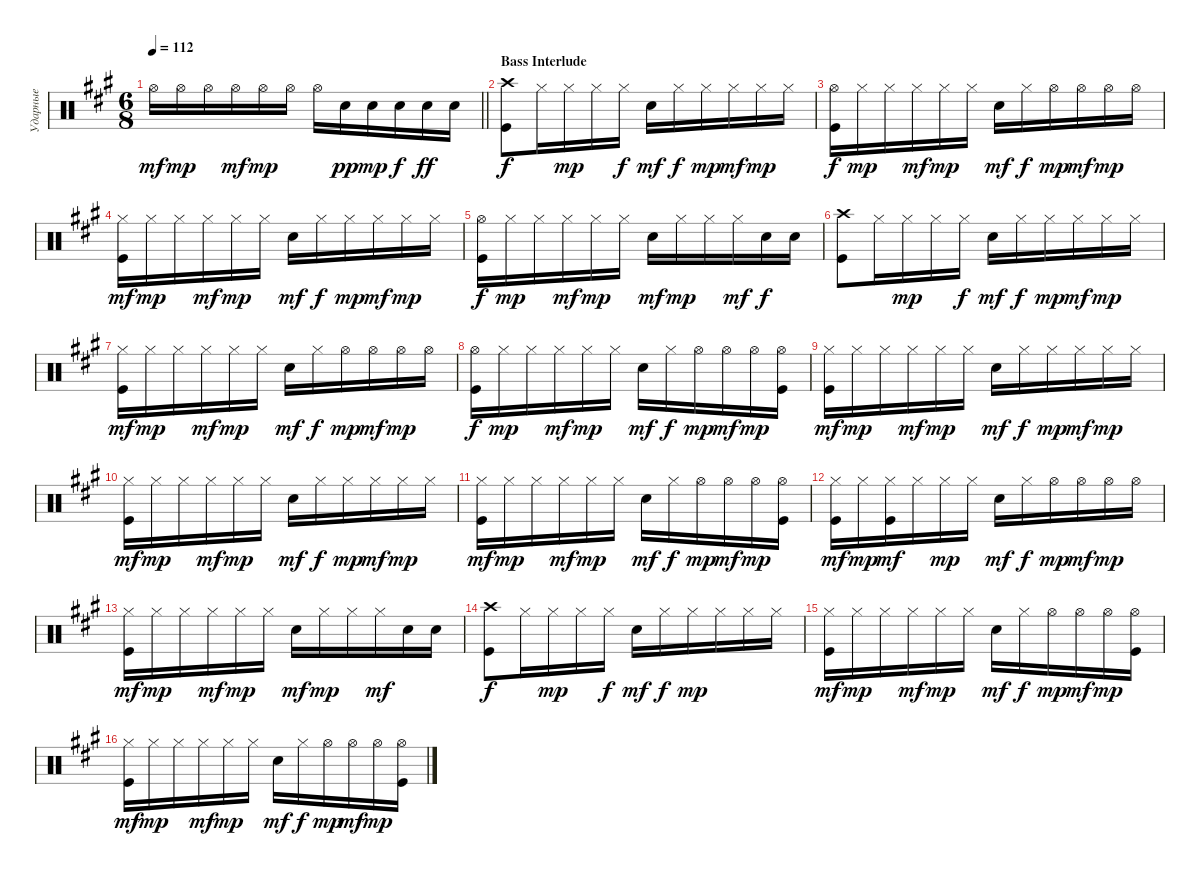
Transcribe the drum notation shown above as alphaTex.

\track ("Ударные" "Ударные") {instrument percussion}
\staff {score}
\articulation defaults
\ts (6 8)
\tempo 112
\clef neutral
\barLineRight lightlight
\ks f#minor "Hi-Hat (open)".16{dy mf} "Hi-Hat (open)".16{dy mp} "Hi-Hat (open)".16 "Hi-Hat (open)".16{dy mf} "Hi-Hat (open)".16{dy mp} "Hi-Hat (open)".16 "Hi-Hat (open)".16 "Snare (hit) 2".16{dy pp} "Snare (hit) 2".16{dy mp} "Snare (hit) 2".16{dy f} "Snare (hit) 2".16{dy ff} "Snare (hit) 2".16
|
\section ("" "Bass Interlude")
("Kick (hit)" "Crash high (hit)").8{dy f} "Hi-Hat (closed)".16 "Hi-Hat (closed)".16{dy mp} "Hi-Hat (closed)".16 "Hi-Hat (closed)".16{dy f} "Snare (hit) 2".16{dy mf} "Hi-Hat (closed)".16{dy f} "Hi-Hat (closed)".16{dy mp} "Hi-Hat (closed)".16{dy mf} "Hi-Hat (closed)".16{dy mp} "Hi-Hat (closed)".16 |
("Kick (hit)" "Hi-Hat (open)").16{dy f} "Hi-Hat (closed)".16{dy mp} "Hi-Hat (closed)".16 "Hi-Hat (closed)".16{dy mf} "Hi-Hat (closed)".16{dy mp} "Hi-Hat (closed)".16 "Snare (hit) 2".16{dy mf} "Hi-Hat (closed)".16{dy f} "Hi-Hat (open)".16{dy mp} "Hi-Hat (open)".16{dy mf} "Hi-Hat (open)".16{dy mp} "Hi-Hat (open)".16 |
("Kick (hit)" "Hi-Hat (closed)").16{dy mf} "Hi-Hat (closed)".16{dy mp} "Hi-Hat (closed)".16 "Hi-Hat (closed)".16{dy mf} "Hi-Hat (closed)".16{dy mp} "Hi-Hat (closed)".16 "Snare (hit) 2".16{dy mf} "Hi-Hat (closed)".16{dy f} "Hi-Hat (closed)".16{dy mp} "Hi-Hat (closed)".16{dy mf} "Hi-Hat (closed)".16{dy mp} "Hi-Hat (closed)".16 |
("Kick (hit)" "Hi-Hat (open)").16{dy f} "Hi-Hat (closed)".16{dy mp} "Hi-Hat (closed)".16 "Hi-Hat (closed)".16{dy mf} "Hi-Hat (closed)".16{dy mp} "Hi-Hat (closed)".16 "Snare (hit) 2".16{dy mf} "Hi-Hat (closed)".16{dy mp} "Hi-Hat (closed)".16 "Hi-Hat (closed)".16{dy mf} "Snare (hit) 2".16{dy f} "Snare (hit) 2".16 |
("Kick (hit)" "Crash high (hit)").8 "Hi-Hat (closed)".16 "Hi-Hat (closed)".16{dy mp} "Hi-Hat (closed)".16 "Hi-Hat (closed)".16{dy f} "Snare (hit) 2".16{dy mf} "Hi-Hat (closed)".16{dy f} "Hi-Hat (closed)".16{dy mp} "Hi-Hat (closed)".16{dy mf} "Hi-Hat (closed)".16{dy mp} "Hi-Hat (closed)".16 |
("Kick (hit)" "Hi-Hat (closed)").16{dy mf} "Hi-Hat (closed)".16{dy mp} "Hi-Hat (closed)".16 "Hi-Hat (closed)".16{dy mf} "Hi-Hat (closed)".16{dy mp} "Hi-Hat (closed)".16 "Snare (hit) 2".16{dy mf} "Hi-Hat (closed)".16{dy f} "Hi-Hat (open)".16{dy mp} "Hi-Hat (open)".16{dy mf} "Hi-Hat (open)".16{dy mp} "Hi-Hat (open)".16 |
("Kick (hit)" "Hi-Hat (open)").16{dy f} "Hi-Hat (closed)".16{dy mp} "Hi-Hat (closed)".16 "Hi-Hat (closed)".16{dy mf} "Hi-Hat (closed)".16{dy mp} "Hi-Hat (closed)".16 "Snare (hit) 2".16{dy mf} "Hi-Hat (closed)".16{dy f} "Hi-Hat (open)".16{dy mp} "Hi-Hat (open)".16{dy mf} "Hi-Hat (open)".16{dy mp} ("Kick (hit)" "Hi-Hat (open)").16 |
("Kick (hit)" "Hi-Hat (closed)").16{dy mf} "Hi-Hat (closed)".16{dy mp} "Hi-Hat (closed)".16 "Hi-Hat (closed)".16{dy mf} "Hi-Hat (closed)".16{dy mp} "Hi-Hat (closed)".16 "Snare (hit) 2".16{dy mf} "Hi-Hat (closed)".16{dy f} "Hi-Hat (closed)".16{dy mp} "Hi-Hat (closed)".16{dy mf} "Hi-Hat (closed)".16{dy mp} "Hi-Hat (closed)".16 |
("Kick (hit)" "Hi-Hat (closed)").16{dy mf} "Hi-Hat (closed)".16{dy mp} "Hi-Hat (closed)".16 "Hi-Hat (closed)".16{dy mf} "Hi-Hat (closed)".16{dy mp} "Hi-Hat (closed)".16 "Snare (hit) 2".16{dy mf} "Hi-Hat (closed)".16{dy f} "Hi-Hat (closed)".16{dy mp} "Hi-Hat (closed)".16{dy mf} "Hi-Hat (closed)".16{dy mp} "Hi-Hat (closed)".16 |
("Kick (hit)" "Hi-Hat (closed)").16{dy mf} "Hi-Hat (closed)".16{dy mp} "Hi-Hat (closed)".16 "Hi-Hat (closed)".16{dy mf} "Hi-Hat (closed)".16{dy mp} "Hi-Hat (closed)".16 "Snare (hit) 2".16{dy mf} "Hi-Hat (closed)".16{dy f} "Hi-Hat (open)".16{dy mp} "Hi-Hat (open)".16{dy mf} "Hi-Hat (open)".16{dy mp} ("Kick (hit)" "Hi-Hat (open)").16 |
("Kick (hit)" "Hi-Hat (closed)").16{dy mf} "Hi-Hat (closed)".16{dy mp} ("Hi-Hat (closed)" "Kick (hit)").16{dy mf} "Hi-Hat (closed)".16 "Hi-Hat (closed)".16{dy mp} "Hi-Hat (closed)".16 "Snare (hit) 2".16{dy mf} "Hi-Hat (closed)".16{dy f} "Hi-Hat (open)".16{dy mp} "Hi-Hat (open)".16{dy mf} "Hi-Hat (open)".16{dy mp} "Hi-Hat (open)".16 |
("Kick (hit)" "Hi-Hat (closed)").16{dy mf} "Hi-Hat (closed)".16{dy mp} "Hi-Hat (closed)".16 "Hi-Hat (closed)".16{dy mf} "Hi-Hat (closed)".16{dy mp} "Hi-Hat (closed)".16 "Snare (hit) 2".16{dy mf} "Hi-Hat (closed)".16{dy mp} "Hi-Hat (closed)".16 "Hi-Hat (closed)".16{dy mf} "Snare (hit) 2".16 "Snare (hit) 2".16 |
("Kick (hit)" "Crash high (hit)").8{dy f} "Hi-Hat (closed)".16 "Hi-Hat (closed)".16{dy mp} "Hi-Hat (closed)".16 "Hi-Hat (closed)".16{dy f} "Snare (hit) 2".16{dy mf} "Hi-Hat (closed)".16{dy f} "Hi-Hat (closed)".16{dy mp} "Hi-Hat (closed)".16 "Hi-Hat (closed)".16 "Hi-Hat (closed)".16 |
("Kick (hit)" "Hi-Hat (closed)").16{dy mf} "Hi-Hat (closed)".16{dy mp} "Hi-Hat (closed)".16 "Hi-Hat (closed)".16{dy mf} "Hi-Hat (closed)".16{dy mp} "Hi-Hat (closed)".16 "Snare (hit) 2".16{dy mf} "Hi-Hat (closed)".16{dy f} "Hi-Hat (open)".16{dy mp} "Hi-Hat (open)".16{dy mf} "Hi-Hat (open)".16{dy mp} ("Kick (hit)" "Hi-Hat (open)").16 |
("Kick (hit)" "Hi-Hat (closed)").16{dy mf} "Hi-Hat (closed)".16{dy mp} "Hi-Hat (closed)".16 "Hi-Hat (closed)".16{dy mf} "Hi-Hat (closed)".16{dy mp} "Hi-Hat (closed)".16 "Snare (hit) 2".16{dy mf} "Hi-Hat (closed)".16{dy f} "Hi-Hat (open)".16{dy mp} "Hi-Hat (open)".16{dy mf} "Hi-Hat (open)".16{dy mp} ("Kick (hit)" "Hi-Hat (open)").16
